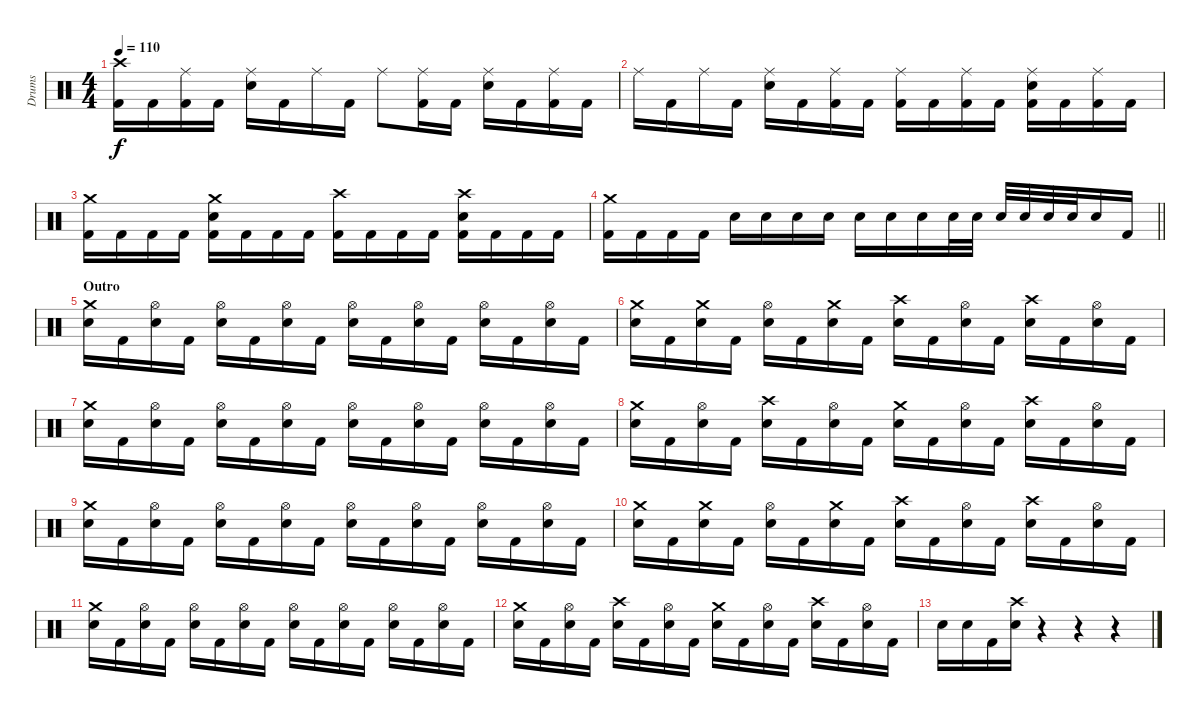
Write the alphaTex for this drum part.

\track ("Drums" "Drums") {instrument percussion}
\staff {score}
\articulation defaults
\ts (4 4)
\tempo 110
\clef neutral
\ks c
("Crash high (hit)" "Kick (hit) 2").16{dy f} "Kick (hit) 2".16 ("Ride (middle)" "Kick (hit) 2").16 "Kick (hit) 2".16 ("Ride (middle)" "Electric Snare (hit)").16 "Kick (hit) 2".16 "Ride (middle)".16 "Kick (hit) 2".16 "Ride (middle)".8 ("Ride (middle)" "Kick (hit) 2").16 "Kick (hit) 2".16 ("Ride (middle)" "Electric Snare (hit)").16 "Kick (hit) 2".16 ("Ride (middle)" "Kick (hit) 2").16 "Kick (hit) 2".16 |
"Ride (middle)".16 "Kick (hit) 2".16 "Ride (middle)".16 "Kick (hit) 2".16 ("Ride (middle)" "Electric Snare (hit)").16 "Kick (hit) 2".16 ("Ride (middle)" "Kick (hit) 2").16 "Kick (hit) 2".16 ("Ride (middle)" "Kick (hit) 2").16 "Kick (hit) 2".16 ("Ride (middle)" "Kick (hit) 2").16 "Kick (hit) 2".16 ("Ride (middle)" "Electric Snare (hit)" "Kick (hit) 2").16 "Kick (hit) 2".16 ("Ride (middle)" "Kick (hit) 2").16 "Kick (hit) 2".16 |
("Crash medium (hit)" "Kick (hit) 2").16 "Kick (hit) 2".16 "Kick (hit) 2".16 "Kick (hit) 2".16 ("Crash medium (hit)" "Electric Snare (hit)" "Kick (hit) 2").16 "Kick (hit) 2".16 "Kick (hit) 2".16 "Kick (hit) 2".16 ("Crash high (hit)" "Kick (hit) 2").16 "Kick (hit) 2".16 "Kick (hit) 2".16 "Kick (hit) 2".16 ("Crash high (hit)" "Electric Snare (hit)" "Kick (hit) 2").16 "Kick (hit) 2".16 "Kick (hit) 2".16 "Kick (hit) 2".16 |
\barLineRight lightlight
("Crash medium (hit)" "Kick (hit) 2").16 "Kick (hit) 2".16 "Kick (hit) 2".16 "Kick (hit) 2".16 "Electric Snare (hit)".16 "Electric Snare (hit)".16 "Electric Snare (hit)".16 "Electric Snare (hit)".16 "Electric Snare (hit)".16 "Electric Snare (hit)".16 "Electric Snare (hit)".16 "Electric Snare (hit)".32 "Electric Snare (hit)".32 "Electric Snare (hit)".32 "Electric Snare (hit)".32 "Electric Snare (hit)".32 "Electric Snare (hit)".32 "Electric Snare (hit)".16 "Kick (hit) 2".16 |
\section ("" "Outro")
("Crash medium (hit)" "Electric Snare (hit)").16 "Kick (hit) 2".16 ("Hi-Hat (open)" "Electric Snare (hit)").16 "Kick (hit) 2".16 ("Hi-Hat (open)" "Electric Snare (hit)").16 "Kick (hit) 2".16 ("Hi-Hat (open)" "Electric Snare (hit)").16 "Kick (hit) 2".16 ("Hi-Hat (open)" "Electric Snare (hit)").16 "Kick (hit) 2".16 ("Hi-Hat (open)" "Electric Snare (hit)").16 "Kick (hit) 2".16 ("Hi-Hat (open)" "Electric Snare (hit)").16 "Kick (hit) 2".16 ("Hi-Hat (open)" "Electric Snare (hit)").16 "Kick (hit) 2".16 |
("Crash medium (hit)" "Electric Snare (hit)").16 "Kick (hit) 2".16 ("Crash medium (hit)" "Electric Snare (hit)").16 "Kick (hit) 2".16 ("Hi-Hat (open)" "Electric Snare (hit)").16 "Kick (hit) 2".16 ("Crash medium (hit)" "Electric Snare (hit)").16 "Kick (hit) 2".16 ("Crash high (hit)" "Electric Snare (hit)").16 "Kick (hit) 2".16 ("Hi-Hat (open)" "Electric Snare (hit)").16 "Kick (hit) 2".16 ("Crash high (hit)" "Electric Snare (hit)").16 "Kick (hit) 2".16 ("Hi-Hat (open)" "Electric Snare (hit)").16 "Kick (hit) 2".16 |
("Crash medium (hit)" "Electric Snare (hit)").16 "Kick (hit) 2".16 ("Hi-Hat (open)" "Electric Snare (hit)").16 "Kick (hit) 2".16 ("Hi-Hat (open)" "Electric Snare (hit)").16 "Kick (hit) 2".16 ("Hi-Hat (open)" "Electric Snare (hit)").16 "Kick (hit) 2".16 ("Hi-Hat (open)" "Electric Snare (hit)").16 "Kick (hit) 2".16 ("Hi-Hat (open)" "Electric Snare (hit)").16 "Kick (hit) 2".16 ("Hi-Hat (open)" "Electric Snare (hit)").16 "Kick (hit) 2".16 ("Hi-Hat (open)" "Electric Snare (hit)").16 "Kick (hit) 2".16 |
("Crash medium (hit)" "Electric Snare (hit)").16 "Kick (hit) 2".16 ("Hi-Hat (open)" "Electric Snare (hit)").16 "Kick (hit) 2".16 ("Crash high (hit)" "Electric Snare (hit)").16 "Kick (hit) 2".16 ("Hi-Hat (open)" "Electric Snare (hit)").16 "Kick (hit) 2".16 ("Crash medium (hit)" "Electric Snare (hit)").16 "Kick (hit) 2".16 ("Hi-Hat (open)" "Electric Snare (hit)").16 "Kick (hit) 2".16 ("Crash high (hit)" "Electric Snare (hit)").16 "Kick (hit) 2".16 ("Hi-Hat (open)" "Electric Snare (hit)").16 "Kick (hit) 2".16 |
("Crash medium (hit)" "Electric Snare (hit)").16 "Kick (hit) 2".16 ("Hi-Hat (open)" "Electric Snare (hit)").16 "Kick (hit) 2".16 ("Hi-Hat (open)" "Electric Snare (hit)").16 "Kick (hit) 2".16 ("Hi-Hat (open)" "Electric Snare (hit)").16 "Kick (hit) 2".16 ("Hi-Hat (open)" "Electric Snare (hit)").16 "Kick (hit) 2".16 ("Hi-Hat (open)" "Electric Snare (hit)").16 "Kick (hit) 2".16 ("Hi-Hat (open)" "Electric Snare (hit)").16 "Kick (hit) 2".16 ("Hi-Hat (open)" "Electric Snare (hit)").16 "Kick (hit) 2".16 |
("Crash medium (hit)" "Electric Snare (hit)").16 "Kick (hit) 2".16 ("Crash medium (hit)" "Electric Snare (hit)").16 "Kick (hit) 2".16 ("Hi-Hat (open)" "Electric Snare (hit)").16 "Kick (hit) 2".16 ("Crash medium (hit)" "Electric Snare (hit)").16 "Kick (hit) 2".16 ("Crash high (hit)" "Electric Snare (hit)").16 "Kick (hit) 2".16 ("Hi-Hat (open)" "Electric Snare (hit)").16 "Kick (hit) 2".16 ("Crash high (hit)" "Electric Snare (hit)").16 "Kick (hit) 2".16 ("Hi-Hat (open)" "Electric Snare (hit)").16 "Kick (hit) 2".16 |
("Crash medium (hit)" "Electric Snare (hit)").16 "Kick (hit) 2".16 ("Hi-Hat (open)" "Electric Snare (hit)").16 "Kick (hit) 2".16 ("Hi-Hat (open)" "Electric Snare (hit)").16 "Kick (hit) 2".16 ("Hi-Hat (open)" "Electric Snare (hit)").16 "Kick (hit) 2".16 ("Hi-Hat (open)" "Electric Snare (hit)").16 "Kick (hit) 2".16 ("Hi-Hat (open)" "Electric Snare (hit)").16 "Kick (hit) 2".16 ("Hi-Hat (open)" "Electric Snare (hit)").16 "Kick (hit) 2".16 ("Hi-Hat (open)" "Electric Snare (hit)").16 "Kick (hit) 2".16 |
("Crash medium (hit)" "Electric Snare (hit)").16 "Kick (hit) 2".16 ("Hi-Hat (open)" "Electric Snare (hit)").16 "Kick (hit) 2".16 ("Crash high (hit)" "Electric Snare (hit)").16 "Kick (hit) 2".16 ("Hi-Hat (open)" "Electric Snare (hit)").16 "Kick (hit) 2".16 ("Crash medium (hit)" "Electric Snare (hit)").16 "Kick (hit) 2".16 ("Hi-Hat (open)" "Electric Snare (hit)").16 "Kick (hit) 2".16 ("Crash high (hit)" "Electric Snare (hit)").16 "Kick (hit) 2".16 ("Hi-Hat (open)" "Electric Snare (hit)").16 "Kick (hit) 2".16 |
"Electric Snare (hit)".16 "Electric Snare (hit)".16 "Kick (hit) 2".16 ("Crash high (hit)" "Electric Snare (hit)").16 r.4 r.4 r.4
